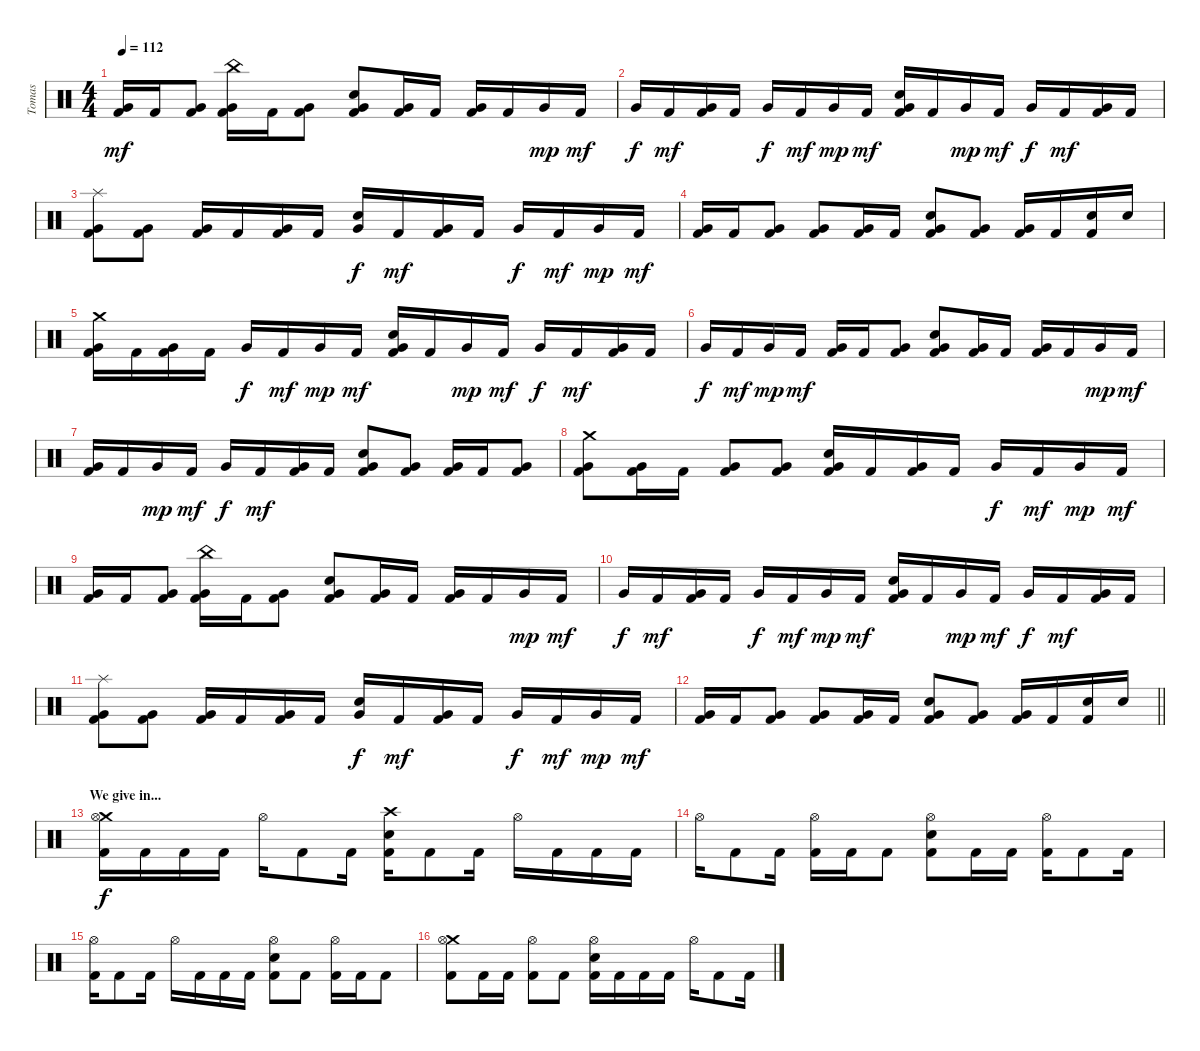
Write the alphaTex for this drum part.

\track ("Tomas" "Tomas") {instrument percussion}
\staff {score}
\articulation defaults
\ts (4 4)
\tempo 112
\clef neutral
\ks c
("Very Low Tom (hit)" "Kick (hit) 2").16{dy mf} "Kick (hit) 2".16 ("Very Low Tom (hit)" "Kick (hit) 2").8 ("China (hit)" "Very Low Tom (hit)" "Kick (hit) 2").16 "Kick (hit) 2".16 ("Very Low Tom (hit)" "Kick (hit) 2").8 ("Electric Snare (hit)" "Very Low Tom (hit)" "Kick (hit) 2").8 ("Very Low Tom (hit)" "Kick (hit) 2").16 "Kick (hit) 2".16 ("Very Low Tom (hit)" "Kick (hit) 2").16 "Kick (hit) 2".16 "Very Low Tom (hit)".16{dy mp} "Kick (hit) 2".16{dy mf} |
"Very Low Tom (hit)".16{dy f} "Kick (hit) 2".16{dy mf} ("Very Low Tom (hit)" "Kick (hit) 2").16 "Kick (hit) 2".16 "Very Low Tom (hit)".16{dy f} "Kick (hit) 2".16{dy mf} "Very Low Tom (hit)".16{dy mp} "Kick (hit) 2".16{dy mf} ("Electric Snare (hit)" "Very Low Tom (hit)" "Kick (hit) 2").16 "Kick (hit) 2".16 "Very Low Tom (hit)".16{dy mp} "Kick (hit) 2".16{dy mf} "Very Low Tom (hit)".16{dy f} "Kick (hit) 2".16{dy mf} ("Very Low Tom (hit)" "Kick (hit) 2").16 "Kick (hit) 2".16 |
("Splash (hit)" "Very Low Tom (hit)" "Kick (hit) 2").8 ("Very Low Tom (hit)" "Kick (hit) 2").8 ("Very Low Tom (hit)" "Kick (hit) 2").16 "Kick (hit) 2".16 ("Very Low Tom (hit)" "Kick (hit) 2").16 "Kick (hit) 2".16 ("Electric Snare (hit)" "Very Low Tom (hit)").16{dy f} "Kick (hit) 2".16{dy mf} ("Very Low Tom (hit)" "Kick (hit) 2").16 "Kick (hit) 2".16 "Very Low Tom (hit)".16{dy f} "Kick (hit) 2".16{dy mf} "Very Low Tom (hit)".16{dy mp} "Kick (hit) 2".16{dy mf} |
("Very Low Tom (hit)" "Kick (hit) 2").16 "Kick (hit) 2".16 ("Very Low Tom (hit)" "Kick (hit) 2").8 ("Very Low Tom (hit)" "Kick (hit) 2").8 ("Very Low Tom (hit)" "Kick (hit) 2").16 "Kick (hit) 2".16 ("Electric Snare (hit)" "Very Low Tom (hit)" "Kick (hit) 2").8 ("Very Low Tom (hit)" "Kick (hit) 2").8 ("Very Low Tom (hit)" "Kick (hit) 2").16 "Kick (hit) 2".16 ("Electric Snare (hit)" "Kick (hit) 2").16 "Electric Snare (hit)".16 |
("Crash medium (hit)" "Very Low Tom (hit)" "Kick (hit) 2").16 "Kick (hit) 2".16 ("Very Low Tom (hit)" "Kick (hit) 2").16 "Kick (hit) 2".16 "Very Low Tom (hit)".16{dy f} "Kick (hit) 2".16{dy mf} "Very Low Tom (hit)".16{dy mp} "Kick (hit) 2".16{dy mf} ("Electric Snare (hit)" "Very Low Tom (hit)" "Kick (hit) 2").16 "Kick (hit) 2".16 "Very Low Tom (hit)".16{dy mp} "Kick (hit) 2".16{dy mf} "Very Low Tom (hit)".16{dy f} "Kick (hit) 2".16{dy mf} ("Very Low Tom (hit)" "Kick (hit) 2").16 "Kick (hit) 2".16 |
"Very Low Tom (hit)".16{dy f} "Kick (hit) 2".16{dy mf} "Very Low Tom (hit)".16{dy mp} "Kick (hit) 2".16{dy mf} ("Very Low Tom (hit)" "Kick (hit) 2").16 "Kick (hit) 2".16 ("Very Low Tom (hit)" "Kick (hit) 2").8 ("Electric Snare (hit)" "Very Low Tom (hit)" "Kick (hit) 2").8 ("Very Low Tom (hit)" "Kick (hit) 2").16 "Kick (hit) 2".16 ("Very Low Tom (hit)" "Kick (hit) 2").16 "Kick (hit) 2".16 "Very Low Tom (hit)".16{dy mp} "Kick (hit) 2".16{dy mf} |
("Very Low Tom (hit)" "Kick (hit) 2").16 "Kick (hit) 2".16 "Very Low Tom (hit)".16{dy mp} "Kick (hit) 2".16{dy mf} "Very Low Tom (hit)".16{dy f} "Kick (hit) 2".16{dy mf} ("Very Low Tom (hit)" "Kick (hit) 2").16 "Kick (hit) 2".16 ("Electric Snare (hit)" "Very Low Tom (hit)" "Kick (hit) 2").8 ("Very Low Tom (hit)" "Kick (hit) 2").8 ("Very Low Tom (hit)" "Kick (hit) 2").16 "Kick (hit) 2".16 ("Very Low Tom (hit)" "Kick (hit) 2").8 |
("Crash medium (hit)" "Very Low Tom (hit)" "Kick (hit) 2").8 ("Very Low Tom (hit)" "Kick (hit) 2").16 "Kick (hit) 2".16 ("Very Low Tom (hit)" "Kick (hit) 2").8 ("Very Low Tom (hit)" "Kick (hit) 2").8 ("Electric Snare (hit)" "Very Low Tom (hit)" "Kick (hit) 2").16 "Kick (hit) 2".16 ("Very Low Tom (hit)" "Kick (hit) 2").16 "Kick (hit) 2".16 "Very Low Tom (hit)".16{dy f} "Kick (hit) 2".16{dy mf} "Very Low Tom (hit)".16{dy mp} "Kick (hit) 2".16{dy mf} |
("Very Low Tom (hit)" "Kick (hit) 2").16 "Kick (hit) 2".16 ("Very Low Tom (hit)" "Kick (hit) 2").8 ("China (hit)" "Very Low Tom (hit)" "Kick (hit) 2").16 "Kick (hit) 2".16 ("Very Low Tom (hit)" "Kick (hit) 2").8 ("Electric Snare (hit)" "Very Low Tom (hit)" "Kick (hit) 2").8 ("Very Low Tom (hit)" "Kick (hit) 2").16 "Kick (hit) 2".16 ("Very Low Tom (hit)" "Kick (hit) 2").16 "Kick (hit) 2".16 "Very Low Tom (hit)".16{dy mp} "Kick (hit) 2".16{dy mf} |
"Very Low Tom (hit)".16{dy f} "Kick (hit) 2".16{dy mf} ("Very Low Tom (hit)" "Kick (hit) 2").16 "Kick (hit) 2".16 "Very Low Tom (hit)".16{dy f} "Kick (hit) 2".16{dy mf} "Very Low Tom (hit)".16{dy mp} "Kick (hit) 2".16{dy mf} ("Electric Snare (hit)" "Very Low Tom (hit)" "Kick (hit) 2").16 "Kick (hit) 2".16 "Very Low Tom (hit)".16{dy mp} "Kick (hit) 2".16{dy mf} "Very Low Tom (hit)".16{dy f} "Kick (hit) 2".16{dy mf} ("Very Low Tom (hit)" "Kick (hit) 2").16 "Kick (hit) 2".16 |
("Splash (hit)" "Very Low Tom (hit)" "Kick (hit) 2").8 ("Very Low Tom (hit)" "Kick (hit) 2").8 ("Very Low Tom (hit)" "Kick (hit) 2").16 "Kick (hit) 2".16 ("Very Low Tom (hit)" "Kick (hit) 2").16 "Kick (hit) 2".16 ("Electric Snare (hit)" "Very Low Tom (hit)").16{dy f} "Kick (hit) 2".16{dy mf} ("Very Low Tom (hit)" "Kick (hit) 2").16 "Kick (hit) 2".16 "Very Low Tom (hit)".16{dy f} "Kick (hit) 2".16{dy mf} "Very Low Tom (hit)".16{dy mp} "Kick (hit) 2".16{dy mf} |
\barLineRight lightlight
("Very Low Tom (hit)" "Kick (hit) 2").16 "Kick (hit) 2".16 ("Very Low Tom (hit)" "Kick (hit) 2").8 ("Very Low Tom (hit)" "Kick (hit) 2").8 ("Very Low Tom (hit)" "Kick (hit) 2").16 "Kick (hit) 2".16 ("Electric Snare (hit)" "Very Low Tom (hit)" "Kick (hit) 2").8 ("Very Low Tom (hit)" "Kick (hit) 2").8 ("Very Low Tom (hit)" "Kick (hit) 2").16 "Kick (hit) 2".16 ("Electric Snare (hit)" "Kick (hit) 2").16 "Electric Snare (hit)".16 |
\section ("" "We give in...")
("Crash medium (hit)" "Hi-Hat (open)" "Kick (hit) 2").16{dy f} "Kick (hit) 2".16 "Kick (hit) 2".16 "Kick (hit) 2".16 "Hi-Hat (open)".16 "Kick (hit) 2".8 "Kick (hit) 2".16 ("Crash high (hit)" "Electric Snare (hit)" "Kick (hit) 2").16 "Kick (hit) 2".8 "Kick (hit) 2".16 "Hi-Hat (open)".16 "Kick (hit) 2".16 "Kick (hit) 2".16 "Kick (hit) 2".16 |
"Hi-Hat (open)".16 "Kick (hit) 2".8 "Kick (hit) 2".16 ("Hi-Hat (open)" "Kick (hit) 2").16 "Kick (hit) 2".16 "Kick (hit) 2".8 ("Hi-Hat (open)" "Electric Snare (hit)" "Kick (hit) 2").8 "Kick (hit) 2".16 "Kick (hit) 2".16 ("Hi-Hat (open)" "Kick (hit) 2").16 "Kick (hit) 2".8 "Kick (hit) 2".16 |
("Hi-Hat (open)" "Kick (hit) 2").16 "Kick (hit) 2".8 "Kick (hit) 2".16 "Hi-Hat (open)".16 "Kick (hit) 2".16 "Kick (hit) 2".16 "Kick (hit) 2".16 ("Hi-Hat (open)" "Electric Snare (hit)" "Kick (hit) 2").8 "Kick (hit) 2".8 ("Hi-Hat (open)" "Kick (hit) 2").16 "Kick (hit) 2".16 "Kick (hit) 2".8 |
("Crash medium (hit)" "Hi-Hat (open)" "Kick (hit) 2").8 "Kick (hit) 2".16 "Kick (hit) 2".16 ("Hi-Hat (open)" "Kick (hit) 2").8 "Kick (hit) 2".8 ("Hi-Hat (open)" "Electric Snare (hit)" "Kick (hit) 2").16 "Kick (hit) 2".16 "Kick (hit) 2".16 "Kick (hit) 2".16 "Hi-Hat (open)".16 "Kick (hit) 2".8 "Kick (hit) 2".16
